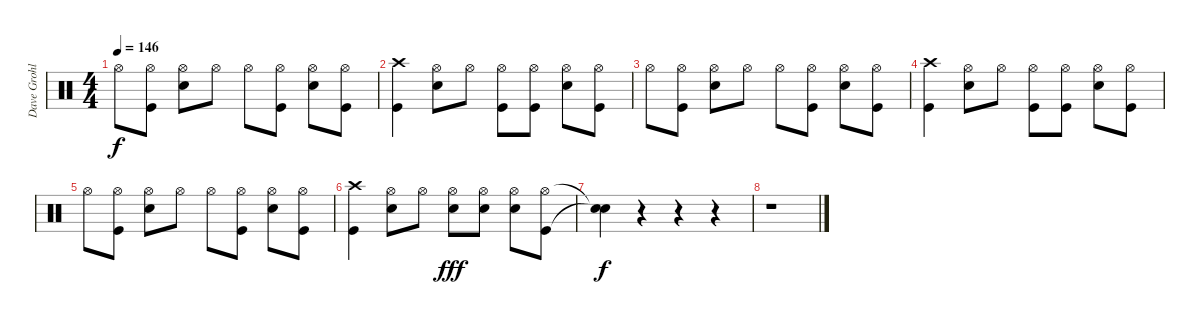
\track ("Dave Grohl - Drums" "Dave Grohl") {instrument percussion}
\staff {score}
\articulation defaults
\ts (4 4)
\tempo 146
\clef neutral
\ks c "Hi-Hat (open)".8{dy f}
("Hi-Hat (open)" "Kick (hit)").8 ("Hi-Hat (open)" "Electric Snare (hit)").8 "Hi-Hat (open)".8 "Hi-Hat (open)".8 ("Hi-Hat (open)" "Kick (hit)").8 ("Hi-Hat (open)" "Electric Snare (hit)").8 ("Hi-Hat (open)" "Kick (hit)").8 |
("Crash high (hit)" "Kick (hit)").4 ("Hi-Hat (open)" "Electric Snare (hit)").8 "Hi-Hat (open)".8 ("Hi-Hat (open)" "Kick (hit)").8 ("Hi-Hat (open)" "Kick (hit)").8 ("Hi-Hat (open)" "Electric Snare (hit)").8 ("Hi-Hat (open)" "Kick (hit)").8 |
"Hi-Hat (open)".8 ("Hi-Hat (open)" "Kick (hit)").8 ("Hi-Hat (open)" "Electric Snare (hit)").8 "Hi-Hat (open)".8 "Hi-Hat (open)".8 ("Hi-Hat (open)" "Kick (hit)").8 ("Hi-Hat (open)" "Electric Snare (hit)").8 ("Hi-Hat (open)" "Kick (hit)").8 |
("Crash high (hit)" "Kick (hit)").4 ("Hi-Hat (open)" "Electric Snare (hit)").8 "Hi-Hat (open)".8 ("Hi-Hat (open)" "Kick (hit)").8 ("Hi-Hat (open)" "Kick (hit)").8 ("Hi-Hat (open)" "Electric Snare (hit)").8 ("Hi-Hat (open)" "Kick (hit)").8 |
"Hi-Hat (open)".8 ("Hi-Hat (open)" "Kick (hit)").8 ("Hi-Hat (open)" "Electric Snare (hit)").8 "Hi-Hat (open)".8 "Hi-Hat (open)".8 ("Hi-Hat (open)" "Kick (hit)").8 ("Hi-Hat (open)" "Electric Snare (hit)").8 ("Hi-Hat (open)" "Kick (hit)").8 |
("Crash high (hit)" "Kick (hit)").4 ("Hi-Hat (open)" "Electric Snare (hit)").8 "Hi-Hat (open)".8 ("Hi-Hat (open)" "Electric Snare (hit)").8{dy fff} ("Hi-Hat (open)" "Electric Snare (hit)").8 ("Hi-Hat (open)" "Electric Snare (hit)").8 ("Hi-Hat (open)" "Kick (hit)").8 |
("Snare (hit)"{t} "Snare (hit)"{t}).4{dy f} r.4 r.4 r.4 |
r.1
